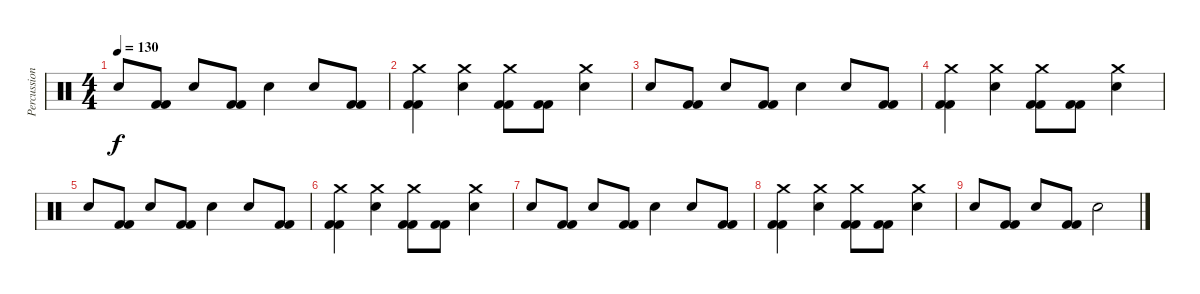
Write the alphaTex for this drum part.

\track ("Percussion" "Percussion") {instrument percussion}
\staff {score}
\articulation defaults
\ts (4 4)
\tempo 130
\clef neutral
\ks c "Snare (hit) 2".8{dy f}
("Kick (hit) 2" "Kick (hit) 2").8 "Snare (hit) 2".8 ("Kick (hit) 2" "Kick (hit) 2").8 "Snare (hit) 2".4 "Snare (hit) 2".8 ("Kick (hit) 2" "Kick (hit) 2").8 |
("Crash medium (hit)" "Kick (hit) 2" "Kick (hit) 2").4 ("Crash medium (hit)" "Snare (hit) 2").4 ("Crash medium (hit)" "Kick (hit) 2" "Kick (hit) 2").8 ("Kick (hit) 2" "Kick (hit) 2").8 ("Crash medium (hit)" "Snare (hit) 2").4 |
"Snare (hit) 2".8 ("Kick (hit) 2" "Kick (hit) 2").8 "Snare (hit) 2".8 ("Kick (hit) 2" "Kick (hit) 2").8 "Snare (hit) 2".4 "Snare (hit) 2".8 ("Kick (hit) 2" "Kick (hit) 2").8 |
("Crash medium (hit)" "Kick (hit) 2" "Kick (hit) 2").4 ("Crash medium (hit)" "Snare (hit) 2").4 ("Crash medium (hit)" "Kick (hit) 2" "Kick (hit) 2").8 ("Kick (hit) 2" "Kick (hit) 2").8 ("Crash medium (hit)" "Snare (hit) 2").4 |
"Snare (hit) 2".8 ("Kick (hit) 2" "Kick (hit) 2").8 "Snare (hit) 2".8 ("Kick (hit) 2" "Kick (hit) 2").8 "Snare (hit) 2".4 "Snare (hit) 2".8 ("Kick (hit) 2" "Kick (hit) 2").8 |
("Crash medium (hit)" "Kick (hit) 2" "Kick (hit) 2").4 ("Crash medium (hit)" "Snare (hit) 2").4 ("Crash medium (hit)" "Kick (hit) 2" "Kick (hit) 2").8 ("Kick (hit) 2" "Kick (hit) 2").8 ("Crash medium (hit)" "Snare (hit) 2").4 |
"Snare (hit) 2".8 ("Kick (hit) 2" "Kick (hit) 2").8 "Snare (hit) 2".8 ("Kick (hit) 2" "Kick (hit) 2").8 "Snare (hit) 2".4 "Snare (hit) 2".8 ("Kick (hit) 2" "Kick (hit) 2").8 |
("Crash medium (hit)" "Kick (hit) 2" "Kick (hit) 2").4 ("Crash medium (hit)" "Snare (hit) 2").4 ("Crash medium (hit)" "Kick (hit) 2" "Kick (hit) 2").8 ("Kick (hit) 2" "Kick (hit) 2").8 ("Crash medium (hit)" "Snare (hit) 2").4 |
"Snare (hit) 2".8 ("Kick (hit) 2" "Kick (hit) 2").8 "Snare (hit) 2".8 ("Kick (hit) 2" "Kick (hit) 2").8 "Snare (hit) 2".2
